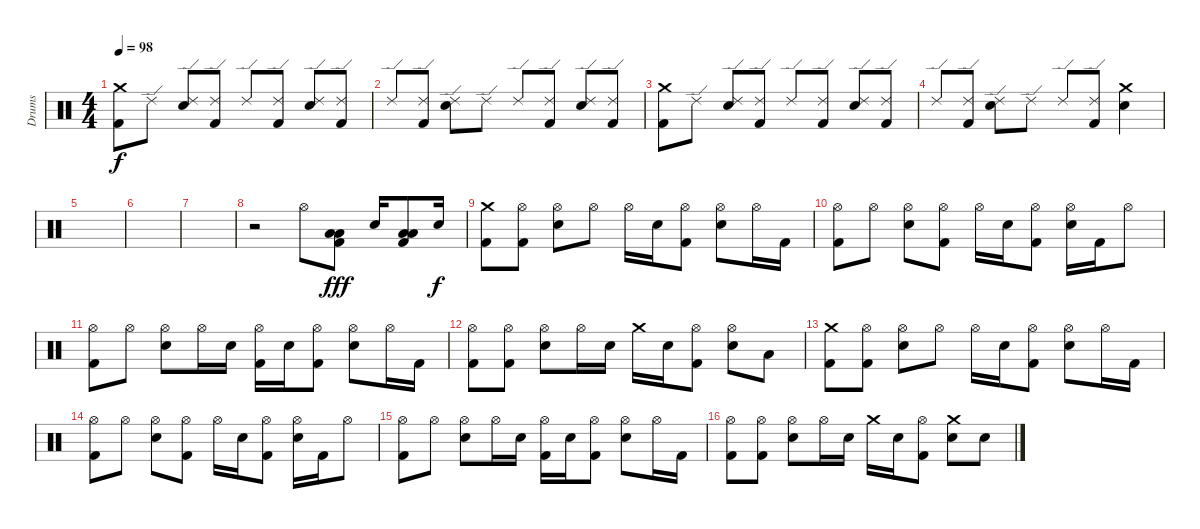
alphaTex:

\track ("Drums" "Drums") {instrument percussion}
\staff {score}
\articulation defaults
\ts (4 4)
\tempo 98
\clef neutral
\ks c
("Crash medium (hit)" "Kick (hit) 2").8{dy f} "Ride (edge) 2".8 ("Ride (edge) 2" "Electric Snare (hit)").8 ("Ride (edge) 2" "Kick (hit) 2").8 "Ride (edge) 2".8 ("Ride (edge) 2" "Kick (hit) 2").8 ("Ride (edge) 2" "Electric Snare (hit)").8 ("Ride (edge) 2" "Kick (hit) 2").8 |
"Ride (edge) 2".8 ("Ride (edge) 2" "Kick (hit) 2").8 ("Ride (edge) 2" "Electric Snare (hit)").8 "Ride (edge) 2".8 "Ride (edge) 2".8 ("Ride (edge) 2" "Kick (hit) 2").8 ("Ride (edge) 2" "Electric Snare (hit)").8 ("Ride (edge) 2" "Kick (hit) 2").8 |
("Crash medium (hit)" "Kick (hit) 2").8 "Ride (edge) 2".8 ("Ride (edge) 2" "Electric Snare (hit)").8 ("Ride (edge) 2" "Kick (hit) 2").8 "Ride (edge) 2".8 ("Ride (edge) 2" "Kick (hit) 2").8 ("Ride (edge) 2" "Electric Snare (hit)").8 ("Ride (edge) 2" "Kick (hit) 2").8 |
"Ride (edge) 2".8 ("Ride (edge) 2" "Kick (hit) 2").8 ("Ride (edge) 2" "Electric Snare (hit)").8 "Ride (edge) 2".8 "Ride (edge) 2".8 ("Ride (edge) 2" "Kick (hit) 2").8 ("Crash medium (hit)" "Electric Snare (hit)").4 |
|
|
|
r.2 "Hi-Hat (open)".8 ("Low Tom (hit)" "Low Floor Tom (hit)" "Kick (hit) 2").8{dy fff} "Electric Snare (hit)".16 ("Low Tom (hit)" "Low Floor Tom (hit)" "Kick (hit) 2").8 "Electric Snare (hit)".16{dy f} |
("Crash medium (hit)" "Kick (hit) 2").8 ("Hi-Hat (open)" "Kick (hit) 2").8 ("Hi-Hat (open)" "Electric Snare (hit)").8 "Hi-Hat (open)".8 "Hi-Hat (open)".16 "Electric Snare (hit)".16 ("Hi-Hat (open)" "Kick (hit) 2").8 ("Hi-Hat (open)" "Electric Snare (hit)").8 "Hi-Hat (open)".16 "Kick (hit) 2".16 |
("Hi-Hat (open)" "Kick (hit) 2").8 "Hi-Hat (open)".8 ("Hi-Hat (open)" "Electric Snare (hit)").8 ("Hi-Hat (open)" "Kick (hit) 2").8 "Hi-Hat (open)".16 "Electric Snare (hit)".16 ("Hi-Hat (open)" "Kick (hit) 2").8 ("Hi-Hat (open)" "Electric Snare (hit)").16 "Kick (hit) 2".16 "Hi-Hat (open)".8 |
("Hi-Hat (open)" "Kick (hit) 2").8 "Hi-Hat (open)".8 ("Hi-Hat (open)" "Electric Snare (hit)").8 "Hi-Hat (open)".16 "Electric Snare (hit)".16 ("Hi-Hat (open)" "Kick (hit) 2").16 "Electric Snare (hit)".16 ("Hi-Hat (open)" "Kick (hit) 2").8 ("Hi-Hat (open)" "Electric Snare (hit)").8 "Hi-Hat (open)".16 "Kick (hit) 2".16 |
("Hi-Hat (open)" "Kick (hit) 2").8 ("Hi-Hat (open)" "Kick (hit) 2").8 ("Hi-Hat (open)" "Electric Snare (hit)").8 "Hi-Hat (open)".16 "Electric Snare (hit)".16 "Crash medium (hit)".16 "Electric Snare (hit)".16 ("Hi-Hat (open)" "Kick (hit) 2").8 ("Hi-Hat (open)" "Electric Snare (hit)").8 "Low Tom (hit)".8 |
("Crash medium (hit)" "Kick (hit) 2").8 ("Hi-Hat (open)" "Kick (hit) 2").8 ("Hi-Hat (open)" "Electric Snare (hit)").8 "Hi-Hat (open)".8 "Hi-Hat (open)".16 "Electric Snare (hit)".16 ("Hi-Hat (open)" "Kick (hit) 2").8 ("Hi-Hat (open)" "Electric Snare (hit)").8 "Hi-Hat (open)".16 "Kick (hit) 2".16 |
("Hi-Hat (open)" "Kick (hit) 2").8 "Hi-Hat (open)".8 ("Hi-Hat (open)" "Electric Snare (hit)").8 ("Hi-Hat (open)" "Kick (hit) 2").8 "Hi-Hat (open)".16 "Electric Snare (hit)".16 ("Hi-Hat (open)" "Kick (hit) 2").8 ("Hi-Hat (open)" "Electric Snare (hit)").16 "Kick (hit) 2".16 "Hi-Hat (open)".8 |
("Hi-Hat (open)" "Kick (hit) 2").8 "Hi-Hat (open)".8 ("Hi-Hat (open)" "Electric Snare (hit)").8 "Hi-Hat (open)".16 "Electric Snare (hit)".16 ("Hi-Hat (open)" "Kick (hit) 2").16 "Electric Snare (hit)".16 ("Hi-Hat (open)" "Kick (hit) 2").8 ("Hi-Hat (open)" "Electric Snare (hit)").8 "Hi-Hat (open)".16 "Kick (hit) 2".16 |
("Hi-Hat (open)" "Kick (hit) 2").8 ("Hi-Hat (open)" "Kick (hit) 2").8 ("Hi-Hat (open)" "Electric Snare (hit)").8 "Hi-Hat (open)".16 "Electric Snare (hit)".16 "Crash medium (hit)".16 "Electric Snare (hit)".16 ("Hi-Hat (open)" "Kick (hit) 2").8 ("Crash medium (hit)" "Electric Snare (hit)").8 "Electric Snare (hit)".8
